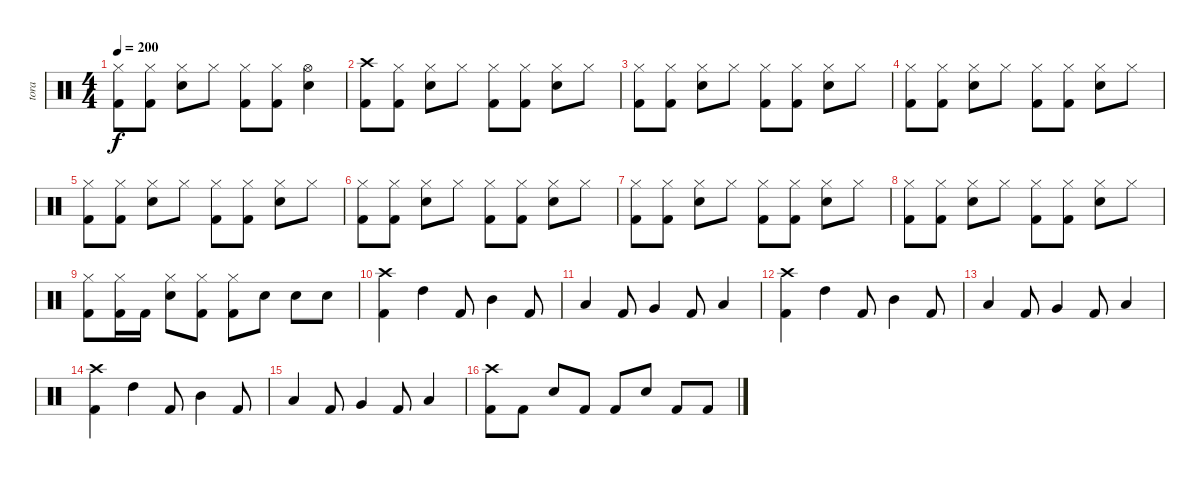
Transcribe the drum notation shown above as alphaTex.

\track ("tora" "tora") {instrument percussion}
\staff {score}
\articulation defaults
\ts (4 4)
\tempo 200
\clef neutral
\ks c
("Hi-Hat (closed)" "Kick (hit) 2").8{dy f} ("Hi-Hat (closed)" "Kick (hit) 2").8 ("Hi-Hat (closed)" "Snare (hit) 2").8 "Hi-Hat (closed)".8 ("Hi-Hat (closed)" "Kick (hit) 2").8 ("Hi-Hat (closed)" "Kick (hit) 2").8 ("Hi-Hat (open)" "Snare (hit) 2").4 |
("Crash high (hit)" "Kick (hit) 2").8 ("Hi-Hat (closed)" "Kick (hit) 2").8 ("Hi-Hat (closed)" "Snare (hit) 2").8 "Hi-Hat (closed)".8 ("Hi-Hat (closed)" "Kick (hit) 2").8 ("Hi-Hat (closed)" "Kick (hit) 2").8 ("Hi-Hat (closed)" "Snare (hit) 2").8 "Hi-Hat (closed)".8 |
("Hi-Hat (closed)" "Kick (hit) 2").8 ("Hi-Hat (closed)" "Kick (hit) 2").8 ("Hi-Hat (closed)" "Snare (hit) 2").8 "Hi-Hat (closed)".8 ("Hi-Hat (closed)" "Kick (hit) 2").8 ("Hi-Hat (closed)" "Kick (hit) 2").8 ("Hi-Hat (closed)" "Snare (hit) 2").8 "Hi-Hat (closed)".8 |
("Hi-Hat (closed)" "Kick (hit) 2").8 ("Hi-Hat (closed)" "Kick (hit) 2").8 ("Hi-Hat (closed)" "Snare (hit) 2").8 "Hi-Hat (closed)".8 ("Hi-Hat (closed)" "Kick (hit) 2").8 ("Hi-Hat (closed)" "Kick (hit) 2").8 ("Hi-Hat (closed)" "Snare (hit) 2").8 "Hi-Hat (closed)".8 |
("Hi-Hat (closed)" "Kick (hit) 2").8 ("Hi-Hat (closed)" "Kick (hit) 2").8 ("Hi-Hat (closed)" "Snare (hit) 2").8 "Hi-Hat (closed)".8 ("Hi-Hat (closed)" "Kick (hit) 2").8 ("Hi-Hat (closed)" "Kick (hit) 2").8 ("Hi-Hat (closed)" "Snare (hit) 2").8 "Hi-Hat (closed)".8 |
("Hi-Hat (closed)" "Kick (hit) 2").8 ("Hi-Hat (closed)" "Kick (hit) 2").8 ("Hi-Hat (closed)" "Snare (hit) 2").8 "Hi-Hat (closed)".8 ("Hi-Hat (closed)" "Kick (hit) 2").8 ("Hi-Hat (closed)" "Kick (hit) 2").8 ("Hi-Hat (closed)" "Snare (hit) 2").8 "Hi-Hat (closed)".8 |
("Hi-Hat (closed)" "Kick (hit) 2").8 ("Hi-Hat (closed)" "Kick (hit) 2").8 ("Hi-Hat (closed)" "Snare (hit) 2").8 "Hi-Hat (closed)".8 ("Hi-Hat (closed)" "Kick (hit) 2").8 ("Hi-Hat (closed)" "Kick (hit) 2").8 ("Hi-Hat (closed)" "Snare (hit) 2").8 "Hi-Hat (closed)".8 |
("Hi-Hat (closed)" "Kick (hit) 2").8 ("Hi-Hat (closed)" "Kick (hit) 2").8 ("Hi-Hat (closed)" "Snare (hit) 2").8 "Hi-Hat (closed)".8 ("Hi-Hat (closed)" "Kick (hit) 2").8 ("Hi-Hat (closed)" "Kick (hit) 2").8 ("Hi-Hat (closed)" "Snare (hit) 2").8 "Hi-Hat (closed)".8 |
("Hi-Hat (closed)" "Kick (hit) 2").8 ("Hi-Hat (closed)" "Kick (hit) 2").16 "Kick (hit) 2".16 ("Hi-Hat (closed)" "Snare (hit) 2").8 ("Hi-Hat (closed)" "Kick (hit) 2").8 ("Hi-Hat (closed)" "Kick (hit) 2").8 "Snare (hit) 2".8 "Snare (hit) 2".8 "Snare (hit) 2".8 |
("Crash high (hit)" "Kick (hit) 2").4 "High Tom (hit)".4 "Kick (hit) 2".8 "Mid Tom (hit)".4 "Kick (hit) 2".8 |
"Low Tom (hit)".4 "Kick (hit) 2".8 "Very Low Tom (hit)".4 "Kick (hit) 2".8 "Low Floor Tom (hit)".4 |
("Crash high (hit)" "Kick (hit) 2").4 "High Tom (hit)".4 "Kick (hit) 2".8 "Mid Tom (hit)".4 "Kick (hit) 2".8 |
"Low Tom (hit)".4 "Kick (hit) 2".8 "Very Low Tom (hit)".4 "Kick (hit) 2".8 "Low Floor Tom (hit)".4 |
("Crash high (hit)" "Kick (hit) 2").4 "High Tom (hit)".4 "Kick (hit) 2".8 "Mid Tom (hit)".4 "Kick (hit) 2".8 |
"Low Tom (hit)".4 "Kick (hit) 2".8 "Very Low Tom (hit)".4 "Kick (hit) 2".8 "Low Floor Tom (hit)".4 |
("Crash high (hit)" "Kick (hit) 2").8 "Kick (hit) 2".8 "Snare (hit) 2".8 "Kick (hit) 2".8 "Kick (hit) 2".8 "Snare (hit) 2".8 "Kick (hit) 2".8 "Kick (hit) 2".8
